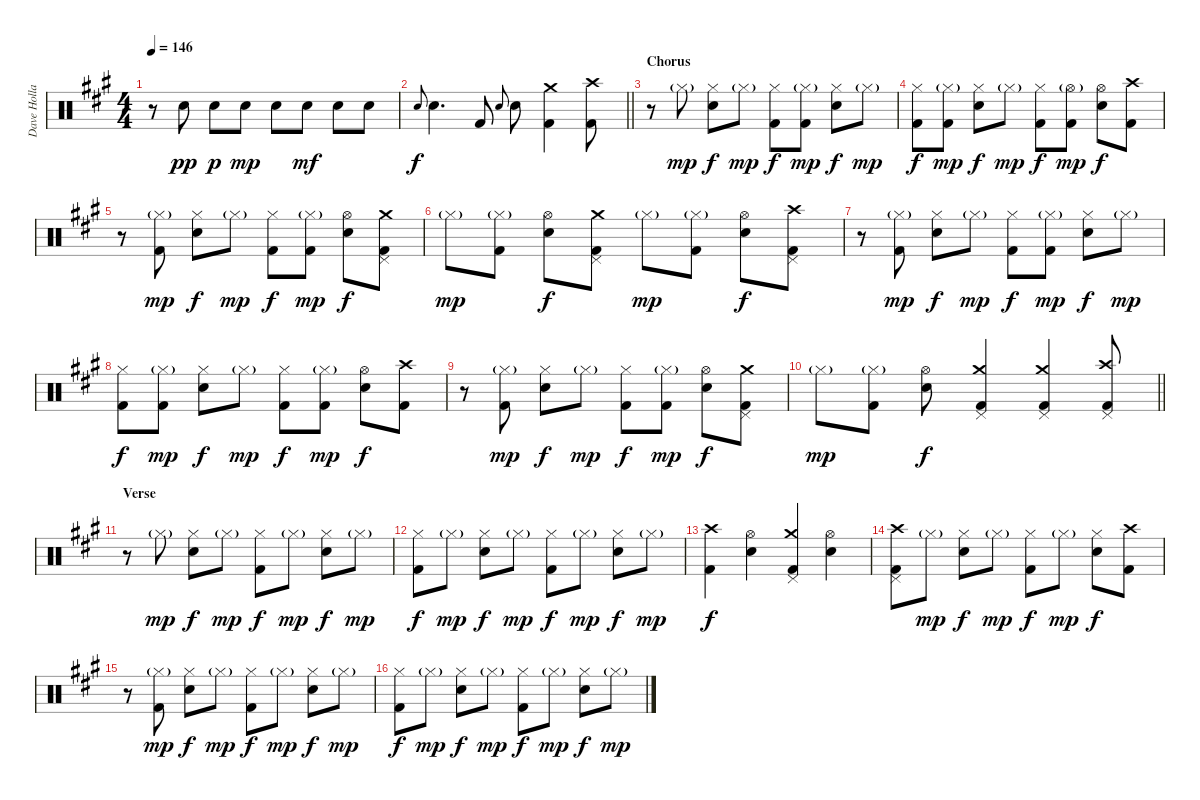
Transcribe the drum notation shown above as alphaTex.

\track ("Dave Holland" "Dave Holla") {instrument percussion}
\staff {score}
\articulation defaults
\ts (4 4)
\tempo 146
\clef neutral
\ks a
r.8{dy f} "Electric Snare (hit)".8{dy pp} "Electric Snare (hit)".8{dy p} "Electric Snare (hit)".8{dy mp} "Electric Snare (hit)".8 "Electric Snare (hit)".8{dy mf} "Electric Snare (hit)".8 "Electric Snare (hit)".8 |
\barLineRight lightlight "Electric Snare (hit)".8{gr onbeat dy f} "Electric Snare (hit)".4{d} "Kick (hit) 2".8 "Electric Snare (hit)".8{gr onbeat} "Electric Snare (hit)".8
("Crash medium (hit)" "Kick (hit) 2").4 ("Crash high (hit)" "Kick (hit) 2").8 |
\section ("" "Chorus")
r.8 "Hi-Hat (closed)"{g}.8{dy mp} ("Hi-Hat (closed)" "Electric Snare (hit)").8{dy f} "Hi-Hat (closed)"{g}.8{dy mp} ("Hi-Hat (closed)" "Kick (hit) 2").8{dy f} ("Hi-Hat (closed)"{g} "Kick (hit) 2").8{dy mp} ("Hi-Hat (closed)" "Electric Snare (hit)").8{dy f} "Hi-Hat (closed)"{g}.8{dy mp} |
("Hi-Hat (closed)" "Kick (hit) 2").8{dy f} ("Hi-Hat (closed)"{g} "Kick (hit) 2").8{dy mp} ("Hi-Hat (closed)" "Electric Snare (hit)").8{dy f} "Hi-Hat (closed)"{g}.8{dy mp} ("Hi-Hat (closed)" "Kick (hit) 2").8{dy f} ("Hi-Hat (open)"{g} "Kick (hit) 2").8{dy mp} ("Hi-Hat (open)" "Electric Snare (hit)").8{dy f} ("Crash high (hit)" "Kick (hit) 2").8 |
r.8 ("Hi-Hat (closed)"{g} "Kick (hit) 2").8{dy mp} ("Hi-Hat (closed)" "Electric Snare (hit)").8{dy f} "Hi-Hat (closed)"{g}.8{dy mp} ("Hi-Hat (closed)" "Kick (hit) 2").8{dy f} ("Hi-Hat (closed)"{g} "Kick (hit) 2").8{dy mp} ("Hi-Hat (open)" "Electric Snare (hit)").8{dy f} ("Crash medium (hit)" "Pedal Hi-Hat (hit)" "Kick (hit) 2").8 |
"Hi-Hat (closed)"{g}.8{dy mp} ("Hi-Hat (closed)"{g} "Kick (hit) 2").8 ("Hi-Hat (open)" "Electric Snare (hit)").8{dy f} ("Crash medium (hit)" "Pedal Hi-Hat (hit)" "Kick (hit) 2").8 "Hi-Hat (closed)"{g}.8{dy mp} ("Hi-Hat (closed)"{g} "Kick (hit) 2").8 ("Hi-Hat (open)" "Electric Snare (hit)").8{dy f} ("Crash high (hit)" "Pedal Hi-Hat (hit)" "Kick (hit) 2").8 |
r.8 ("Hi-Hat (closed)"{g} "Kick (hit) 2").8{dy mp} ("Hi-Hat (closed)" "Electric Snare (hit)").8{dy f} "Hi-Hat (closed)"{g}.8{dy mp} ("Hi-Hat (closed)" "Kick (hit) 2").8{dy f} ("Hi-Hat (closed)"{g} "Kick (hit) 2").8{dy mp} ("Hi-Hat (closed)" "Electric Snare (hit)").8{dy f} "Hi-Hat (closed)"{g}.8{dy mp} |
("Hi-Hat (closed)" "Kick (hit) 2").8{dy f} ("Hi-Hat (closed)"{g} "Kick (hit) 2").8{dy mp} ("Hi-Hat (closed)" "Electric Snare (hit)").8{dy f} "Hi-Hat (closed)"{g}.8{dy mp} ("Hi-Hat (closed)" "Kick (hit) 2").8{dy f} ("Hi-Hat (closed)"{g} "Kick (hit) 2").8{dy mp} ("Hi-Hat (open)" "Electric Snare (hit)").8{dy f} ("Crash high (hit)" "Kick (hit) 2").8 |
r.8 ("Hi-Hat (closed)"{g} "Kick (hit) 2").8{dy mp} ("Hi-Hat (closed)" "Electric Snare (hit)").8{dy f} "Hi-Hat (closed)"{g}.8{dy mp} ("Hi-Hat (closed)" "Kick (hit) 2").8{dy f} ("Hi-Hat (closed)"{g} "Kick (hit) 2").8{dy mp} ("Hi-Hat (open)" "Electric Snare (hit)").8{dy f} ("Crash medium (hit)" "Pedal Hi-Hat (hit)" "Kick (hit) 2").8 |
\barLineRight lightlight "Hi-Hat (closed)"{g}.8{dy mp}
("Hi-Hat (closed)"{g} "Kick (hit) 2").8 ("Hi-Hat (open)" "Electric Snare (hit)").8{dy f} ("Crash medium (hit)" "Pedal Hi-Hat (hit)" "Kick (hit) 2").4 ("Crash medium (hit)" "Pedal Hi-Hat (hit)" "Kick (hit) 2").4 ("Crash high (hit)" "Pedal Hi-Hat (hit)" "Kick (hit) 2").8 |
\section ("" "Verse")
r.8 "Hi-Hat (closed)"{g}.8{dy mp} ("Hi-Hat (closed)" "Electric Snare (hit)").8{dy f} "Hi-Hat (closed)"{g}.8{dy mp} ("Hi-Hat (closed)" "Kick (hit) 2").8{dy f} "Hi-Hat (closed)"{g}.8{dy mp} ("Hi-Hat (closed)" "Electric Snare (hit)").8{dy f} "Hi-Hat (closed)"{g}.8{dy mp} |
("Hi-Hat (closed)" "Kick (hit) 2").8{dy f} "Hi-Hat (closed)"{g}.8{dy mp} ("Hi-Hat (closed)" "Electric Snare (hit)").8{dy f} "Hi-Hat (closed)"{g}.8{dy mp} ("Hi-Hat (closed)" "Kick (hit) 2").8{dy f} "Hi-Hat (closed)"{g}.8{dy mp} ("Hi-Hat (closed)" "Electric Snare (hit)").8{dy f} "Hi-Hat (closed)"{g}.8{dy mp} |
("Crash high (hit)" "Kick (hit) 2").4{dy f} ("Hi-Hat (open)" "Electric Snare (hit)").4 ("Crash medium (hit)" "Pedal Hi-Hat (hit)" "Kick (hit) 2").4 ("Hi-Hat (open)" "Electric Snare (hit)").4 |
("Crash high (hit)" "Pedal Hi-Hat (hit)" "Kick (hit) 2").8 "Hi-Hat (closed)"{g}.8{dy mp} ("Hi-Hat (closed)" "Electric Snare (hit)").8{dy f} "Hi-Hat (closed)"{g}.8{dy mp} ("Hi-Hat (closed)" "Kick (hit) 2").8{dy f} "Hi-Hat (closed)"{g}.8{dy mp} ("Hi-Hat (closed)" "Electric Snare (hit)").8{dy f} ("Crash high (hit)" "Kick (hit) 2").8 |
r.8 ("Hi-Hat (closed)"{g} "Kick (hit) 2").8{dy mp} ("Hi-Hat (closed)" "Electric Snare (hit)").8{dy f} "Hi-Hat (closed)"{g}.8{dy mp} ("Hi-Hat (closed)" "Kick (hit) 2").8{dy f} "Hi-Hat (closed)"{g}.8{dy mp} ("Hi-Hat (closed)" "Electric Snare (hit)").8{dy f} "Hi-Hat (closed)"{g}.8{dy mp} |
("Hi-Hat (closed)" "Kick (hit) 2").8{dy f} "Hi-Hat (closed)"{g}.8{dy mp} ("Hi-Hat (closed)" "Electric Snare (hit)").8{dy f} "Hi-Hat (closed)"{g}.8{dy mp} ("Hi-Hat (closed)" "Kick (hit) 2").8{dy f} "Hi-Hat (closed)"{g}.8{dy mp} ("Hi-Hat (closed)" "Electric Snare (hit)").8{dy f} "Hi-Hat (closed)"{g}.8{dy mp}
